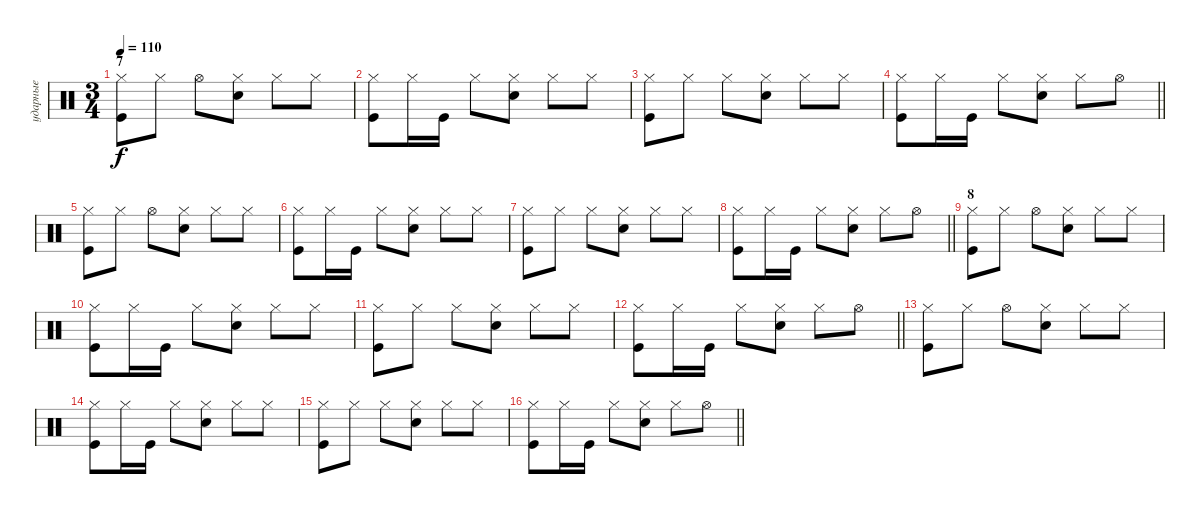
\track ("ударные" "ударные") {instrument percussion}
\staff {score}
\articulation defaults
\ts (3 4)
\section ("" "7")
\tempo 110
\clef neutral
\ks c
("Hi-Hat (closed)" "Kick (hit)").8{dy f} "Hi-Hat (closed)".8 "Hi-Hat (open)".8 ("Hi-Hat (closed)" "Electric Snare (hit)").8 "Hi-Hat (closed)".8 "Hi-Hat (closed)".8 |
("Hi-Hat (closed)" "Kick (hit)").8 "Hi-Hat (closed)".16 "Kick (hit)".16 "Hi-Hat (closed)".8 ("Hi-Hat (closed)" "Electric Snare (hit)").8 "Hi-Hat (closed)".8 "Hi-Hat (closed)".8 |
("Hi-Hat (closed)" "Kick (hit)").8 "Hi-Hat (closed)".8 "Hi-Hat (closed)".8 ("Hi-Hat (closed)" "Electric Snare (hit)").8 "Hi-Hat (closed)".8 "Hi-Hat (closed)".8 |
\barLineRight lightlight
("Hi-Hat (closed)" "Kick (hit)").8 "Hi-Hat (closed)".16 "Kick (hit)".16 "Hi-Hat (closed)".8 ("Hi-Hat (closed)" "Electric Snare (hit)").8 "Hi-Hat (closed)".8 "Hi-Hat (open)".8 |
("Hi-Hat (closed)" "Kick (hit)").8 "Hi-Hat (closed)".8 "Hi-Hat (open)".8 ("Hi-Hat (closed)" "Electric Snare (hit)").8 "Hi-Hat (closed)".8 "Hi-Hat (closed)".8 |
("Hi-Hat (closed)" "Kick (hit)").8 "Hi-Hat (closed)".16 "Kick (hit)".16 "Hi-Hat (closed)".8 ("Hi-Hat (closed)" "Electric Snare (hit)").8 "Hi-Hat (closed)".8 "Hi-Hat (closed)".8 |
("Hi-Hat (closed)" "Kick (hit)").8 "Hi-Hat (closed)".8 "Hi-Hat (closed)".8 ("Hi-Hat (closed)" "Electric Snare (hit)").8 "Hi-Hat (closed)".8 "Hi-Hat (closed)".8 |
\barLineRight lightlight
("Hi-Hat (closed)" "Kick (hit)").8 "Hi-Hat (closed)".16 "Kick (hit)".16 "Hi-Hat (closed)".8 ("Hi-Hat (closed)" "Electric Snare (hit)").8 "Hi-Hat (closed)".8 "Hi-Hat (open)".8 |
\section ("" "8")
("Hi-Hat (closed)" "Kick (hit)").8 "Hi-Hat (closed)".8 "Hi-Hat (open)".8 ("Hi-Hat (closed)" "Electric Snare (hit)").8 "Hi-Hat (closed)".8 "Hi-Hat (closed)".8 |
("Hi-Hat (closed)" "Kick (hit)").8 "Hi-Hat (closed)".16 "Kick (hit)".16 "Hi-Hat (closed)".8 ("Hi-Hat (closed)" "Electric Snare (hit)").8 "Hi-Hat (closed)".8 "Hi-Hat (closed)".8 |
("Hi-Hat (closed)" "Kick (hit)").8 "Hi-Hat (closed)".8 "Hi-Hat (closed)".8 ("Hi-Hat (closed)" "Electric Snare (hit)").8 "Hi-Hat (closed)".8 "Hi-Hat (closed)".8 |
\barLineRight lightlight
("Hi-Hat (closed)" "Kick (hit)").8 "Hi-Hat (closed)".16 "Kick (hit)".16 "Hi-Hat (closed)".8 ("Hi-Hat (closed)" "Electric Snare (hit)").8 "Hi-Hat (closed)".8 "Hi-Hat (open)".8 |
("Hi-Hat (closed)" "Kick (hit)").8 "Hi-Hat (closed)".8 "Hi-Hat (open)".8 ("Hi-Hat (closed)" "Electric Snare (hit)").8 "Hi-Hat (closed)".8 "Hi-Hat (closed)".8 |
("Hi-Hat (closed)" "Kick (hit)").8 "Hi-Hat (closed)".16 "Kick (hit)".16 "Hi-Hat (closed)".8 ("Hi-Hat (closed)" "Electric Snare (hit)").8 "Hi-Hat (closed)".8 "Hi-Hat (closed)".8 |
("Hi-Hat (closed)" "Kick (hit)").8 "Hi-Hat (closed)".8 "Hi-Hat (closed)".8 ("Hi-Hat (closed)" "Electric Snare (hit)").8 "Hi-Hat (closed)".8 "Hi-Hat (closed)".8 |
\barLineRight lightlight
("Hi-Hat (closed)" "Kick (hit)").8 "Hi-Hat (closed)".16 "Kick (hit)".16 "Hi-Hat (closed)".8 ("Hi-Hat (closed)" "Electric Snare (hit)").8 "Hi-Hat (closed)".8 "Hi-Hat (open)".8
